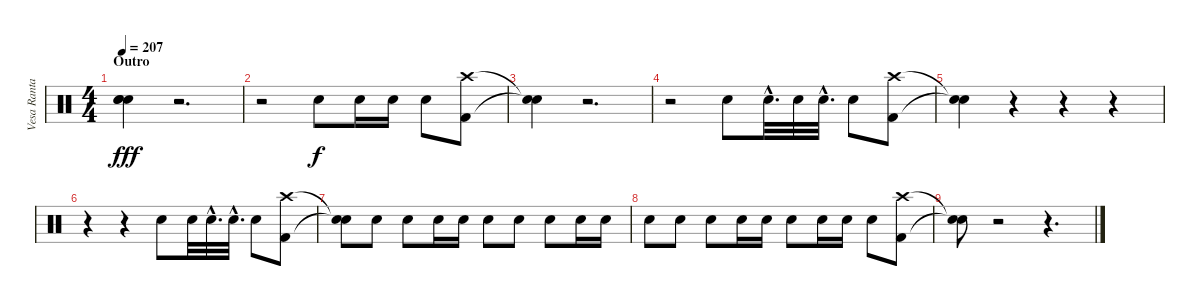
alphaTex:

\track ("Vesa Ranta" "Vesa Ranta") {instrument percussion}
\staff {score}
\articulation defaults
\ts (4 4)
\section ("" "Outro")
\tempo 207
\clef neutral
\ks c
("Snare (hit)"{t} "Snare (hit)"{t} "Snare (hit)"{t}).4{dy fff} r.2{d} |
r.2 "Snare (hit) 2".8{dy f} "Snare (hit) 2".16 "Snare (hit) 2".16 "Snare (hit) 2".8 ("Kick (hit) 2" "Crash high (hit)").8 |
("Snare (hit)"{t} "Snare (hit)"{t}).4 r.2{d} |
r.2 "Snare (hit) 2".8 "Snare (hit) 2"{hac}.32{d} "Snare (hit) 2".32 "Snare (hit) 2"{hac}.32{d} "Snare (hit) 2".8 ("Kick (hit) 2" "Crash high (hit)").8 |
("Snare (hit)"{t} "Snare (hit)"{t}).4 r.4 r.4 r.4 |
r.4 r.4 "Snare (hit) 2".8 "Snare (hit) 2".32 "Snare (hit) 2"{hac}.32{d} "Snare (hit) 2"{hac}.32{d} "Snare (hit) 2".8 ("Kick (hit) 2" "Crash high (hit)").8 |
("Snare (hit)"{t} "Snare (hit)"{t}).8 "Snare (hit) 2".8 "Snare (hit) 2".8 "Snare (hit) 2".16 "Snare (hit) 2".16 "Snare (hit) 2".8 "Snare (hit) 2".8 "Snare (hit) 2".8 "Snare (hit) 2".16 "Snare (hit) 2".16 |
"Snare (hit) 2".8 "Snare (hit) 2".8 "Snare (hit) 2".8 "Snare (hit) 2".16 "Snare (hit) 2".16 "Snare (hit) 2".8 "Snare (hit) 2".16 "Snare (hit) 2".16 "Snare (hit) 2".8 ("Kick (hit) 2" "Crash high (hit)").8 |
("Snare (hit)"{t} "Snare (hit)"{t}).8 r.2 r.4{d}
